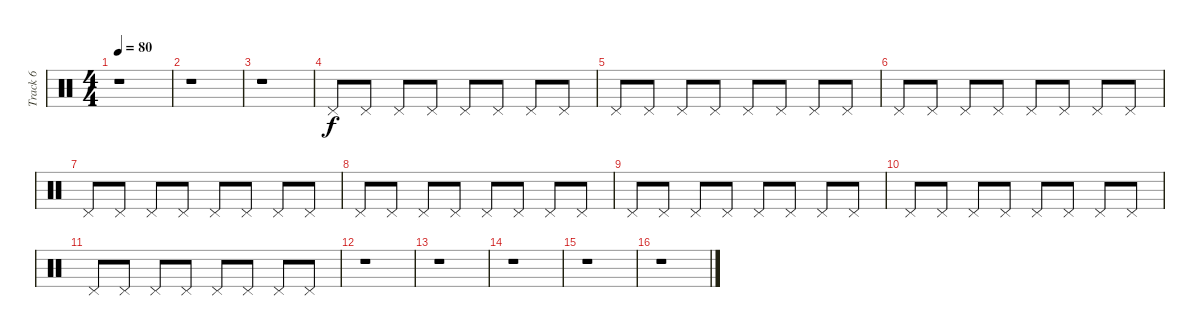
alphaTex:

\track ("Track 6" "Track 6") {instrument percussion}
\staff {score}
\articulation defaults
\ts (4 4)
\tempo 80
\clef neutral
\ks c
r.1{dy f} |
r.1 |
r.1 |
"Pedal Hi-Hat (hit)".8 "Pedal Hi-Hat (hit)".8 "Pedal Hi-Hat (hit)".8 "Pedal Hi-Hat (hit)".8 "Pedal Hi-Hat (hit)".8 "Pedal Hi-Hat (hit)".8 "Pedal Hi-Hat (hit)".8 "Pedal Hi-Hat (hit)".8 |
"Pedal Hi-Hat (hit)".8 "Pedal Hi-Hat (hit)".8 "Pedal Hi-Hat (hit)".8 "Pedal Hi-Hat (hit)".8 "Pedal Hi-Hat (hit)".8 "Pedal Hi-Hat (hit)".8 "Pedal Hi-Hat (hit)".8 "Pedal Hi-Hat (hit)".8 |
"Pedal Hi-Hat (hit)".8 "Pedal Hi-Hat (hit)".8 "Pedal Hi-Hat (hit)".8 "Pedal Hi-Hat (hit)".8 "Pedal Hi-Hat (hit)".8 "Pedal Hi-Hat (hit)".8 "Pedal Hi-Hat (hit)".8 "Pedal Hi-Hat (hit)".8 |
"Pedal Hi-Hat (hit)".8 "Pedal Hi-Hat (hit)".8 "Pedal Hi-Hat (hit)".8 "Pedal Hi-Hat (hit)".8 "Pedal Hi-Hat (hit)".8 "Pedal Hi-Hat (hit)".8 "Pedal Hi-Hat (hit)".8 "Pedal Hi-Hat (hit)".8 |
"Pedal Hi-Hat (hit)".8 "Pedal Hi-Hat (hit)".8 "Pedal Hi-Hat (hit)".8 "Pedal Hi-Hat (hit)".8 "Pedal Hi-Hat (hit)".8 "Pedal Hi-Hat (hit)".8 "Pedal Hi-Hat (hit)".8 "Pedal Hi-Hat (hit)".8 |
"Pedal Hi-Hat (hit)".8 "Pedal Hi-Hat (hit)".8 "Pedal Hi-Hat (hit)".8 "Pedal Hi-Hat (hit)".8 "Pedal Hi-Hat (hit)".8 "Pedal Hi-Hat (hit)".8 "Pedal Hi-Hat (hit)".8 "Pedal Hi-Hat (hit)".8 |
"Pedal Hi-Hat (hit)".8 "Pedal Hi-Hat (hit)".8 "Pedal Hi-Hat (hit)".8 "Pedal Hi-Hat (hit)".8 "Pedal Hi-Hat (hit)".8 "Pedal Hi-Hat (hit)".8 "Pedal Hi-Hat (hit)".8 "Pedal Hi-Hat (hit)".8 |
"Pedal Hi-Hat (hit)".8 "Pedal Hi-Hat (hit)".8 "Pedal Hi-Hat (hit)".8 "Pedal Hi-Hat (hit)".8 "Pedal Hi-Hat (hit)".8 "Pedal Hi-Hat (hit)".8 "Pedal Hi-Hat (hit)".8 "Pedal Hi-Hat (hit)".8 |
r.1 |
r.1 |
r.1 |
r.1 |
r.1
